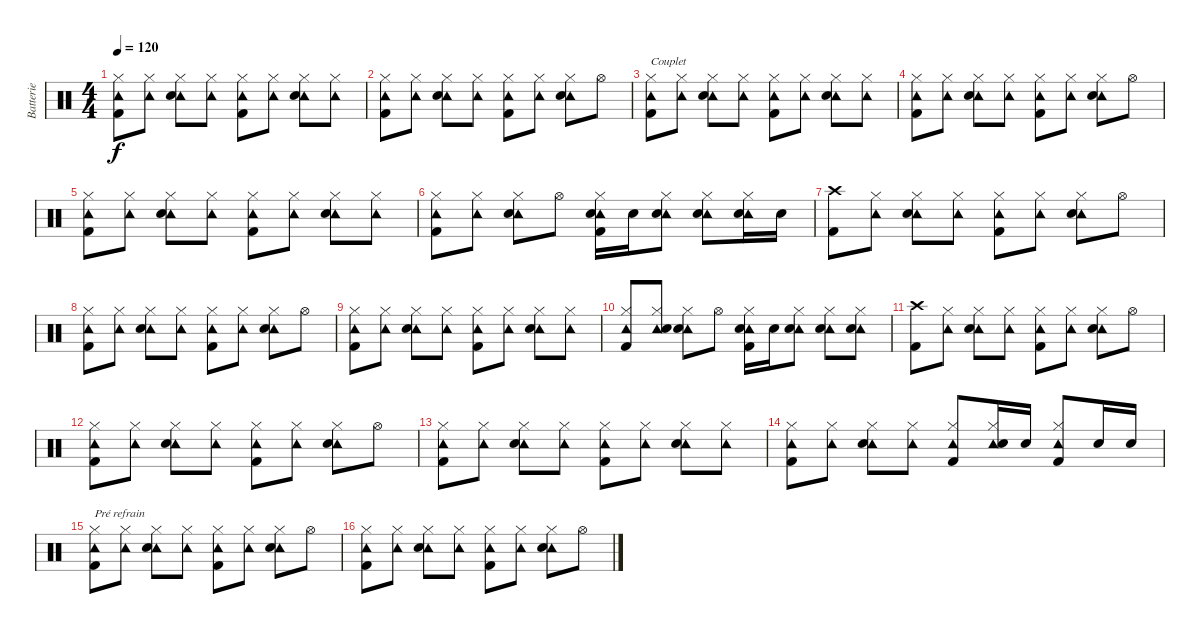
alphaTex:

\track ("Batterie" "Batterie") {instrument percussion}
\staff {score}
\articulation defaults
\ts (4 4)
\tempo 120
\clef neutral
\ks c
("Tambourine (hit)" "Hi-Hat (closed)" "Kick (hit) 2").8{dy f} ("Tambourine (hit)" "Hi-Hat (closed)").8 ("Tambourine (hit)" "Hi-Hat (closed)" "Electric Snare (hit)").8 ("Tambourine (hit)" "Hi-Hat (closed)").8 ("Tambourine (hit)" "Hi-Hat (closed)" "Kick (hit) 2").8 ("Tambourine (hit)" "Hi-Hat (closed)").8 ("Tambourine (hit)" "Hi-Hat (closed)" "Electric Snare (hit)").8 ("Tambourine (hit)" "Hi-Hat (closed)").8 |
("Tambourine (hit)" "Hi-Hat (closed)" "Kick (hit) 2").8 ("Tambourine (hit)" "Hi-Hat (closed)").8 ("Tambourine (hit)" "Hi-Hat (closed)" "Electric Snare (hit)").8 ("Tambourine (hit)" "Hi-Hat (closed)").8 ("Tambourine (hit)" "Hi-Hat (closed)" "Kick (hit) 2").8 ("Tambourine (hit)" "Hi-Hat (closed)").8 ("Tambourine (hit)" "Hi-Hat (closed)" "Electric Snare (hit)").8 "Hi-Hat (open)".8 |
("Tambourine (hit)" "Hi-Hat (closed)" "Kick (hit) 2").8{txt "Couplet"} ("Tambourine (hit)" "Hi-Hat (closed)").8 ("Tambourine (hit)" "Hi-Hat (closed)" "Electric Snare (hit)").8 ("Tambourine (hit)" "Hi-Hat (closed)").8 ("Tambourine (hit)" "Hi-Hat (closed)" "Kick (hit) 2").8 ("Tambourine (hit)" "Hi-Hat (closed)").8 ("Tambourine (hit)" "Hi-Hat (closed)" "Electric Snare (hit)").8 ("Tambourine (hit)" "Hi-Hat (closed)").8 |
("Tambourine (hit)" "Hi-Hat (closed)" "Kick (hit) 2").8 ("Tambourine (hit)" "Hi-Hat (closed)").8 ("Tambourine (hit)" "Hi-Hat (closed)" "Electric Snare (hit)").8 ("Tambourine (hit)" "Hi-Hat (closed)").8 ("Tambourine (hit)" "Hi-Hat (closed)" "Kick (hit) 2").8 ("Tambourine (hit)" "Hi-Hat (closed)").8 ("Tambourine (hit)" "Hi-Hat (closed)" "Electric Snare (hit)").8 "Hi-Hat (open)".8 |
("Tambourine (hit)" "Hi-Hat (closed)" "Kick (hit) 2").8 ("Tambourine (hit)" "Hi-Hat (closed)").8 ("Tambourine (hit)" "Hi-Hat (closed)" "Electric Snare (hit)").8 ("Tambourine (hit)" "Hi-Hat (closed)").8 ("Tambourine (hit)" "Hi-Hat (closed)" "Kick (hit) 2").8 ("Tambourine (hit)" "Hi-Hat (closed)").8 ("Tambourine (hit)" "Hi-Hat (closed)" "Electric Snare (hit)").8 ("Tambourine (hit)" "Hi-Hat (closed)").8 |
("Tambourine (hit)" "Hi-Hat (closed)" "Kick (hit) 2").8 ("Tambourine (hit)" "Hi-Hat (closed)").8 ("Tambourine (hit)" "Hi-Hat (closed)" "Electric Snare (hit)").8 "Hi-Hat (open)".8 ("Tambourine (hit)" "Hi-Hat (closed)" "Kick (hit) 2" "Electric Snare (hit)").16 "Electric Snare (hit)".16 ("Tambourine (hit)" "Hi-Hat (closed)" "Electric Snare (hit)").8 ("Tambourine (hit)" "Hi-Hat (closed)" "Electric Snare (hit)").8 ("Tambourine (hit)" "Hi-Hat (closed)" "Electric Snare (hit)").16 "Electric Snare (hit)".16 |
("Crash high (hit)" "Kick (hit) 2").8 ("Tambourine (hit)" "Hi-Hat (closed)").8 ("Tambourine (hit)" "Hi-Hat (closed)" "Electric Snare (hit)").8 ("Tambourine (hit)" "Hi-Hat (closed)").8 ("Tambourine (hit)" "Hi-Hat (closed)" "Kick (hit) 2").8 ("Tambourine (hit)" "Hi-Hat (closed)").8 ("Tambourine (hit)" "Hi-Hat (closed)" "Electric Snare (hit)").8 "Hi-Hat (open)".8 |
("Tambourine (hit)" "Hi-Hat (closed)" "Kick (hit) 2").8 ("Tambourine (hit)" "Hi-Hat (closed)").8 ("Tambourine (hit)" "Hi-Hat (closed)" "Electric Snare (hit)").8 ("Tambourine (hit)" "Hi-Hat (closed)").8 ("Tambourine (hit)" "Hi-Hat (closed)" "Kick (hit) 2").8 ("Tambourine (hit)" "Hi-Hat (closed)").8 ("Tambourine (hit)" "Hi-Hat (closed)" "Electric Snare (hit)").8 "Hi-Hat (open)".8 |
("Tambourine (hit)" "Hi-Hat (closed)" "Kick (hit) 2").8 ("Tambourine (hit)" "Hi-Hat (closed)").8 ("Tambourine (hit)" "Hi-Hat (closed)" "Electric Snare (hit)").8 ("Tambourine (hit)" "Hi-Hat (closed)").8 ("Tambourine (hit)" "Hi-Hat (closed)" "Kick (hit) 2").8 ("Tambourine (hit)" "Hi-Hat (closed)").8 ("Tambourine (hit)" "Hi-Hat (closed)" "Electric Snare (hit)").8 ("Tambourine (hit)" "Hi-Hat (closed)").8 |
("Tambourine (hit)" "Hi-Hat (closed)" "Kick (hit) 2").8 ("Tambourine (hit)" "Hi-Hat (closed)" "Electric Snare (hit)").8 ("Tambourine (hit)" "Hi-Hat (closed)" "Electric Snare (hit)").8 "Hi-Hat (open)".8 ("Tambourine (hit)" "Hi-Hat (closed)" "Kick (hit) 2" "Electric Snare (hit)").16 "Electric Snare (hit)".16 ("Tambourine (hit)" "Hi-Hat (closed)" "Electric Snare (hit)").8 ("Tambourine (hit)" "Hi-Hat (closed)" "Electric Snare (hit)").8 ("Tambourine (hit)" "Hi-Hat (closed)" "Electric Snare (hit)").8 |
("Crash high (hit)" "Kick (hit) 2").8 ("Tambourine (hit)" "Hi-Hat (closed)").8 ("Tambourine (hit)" "Hi-Hat (closed)" "Electric Snare (hit)").8 ("Tambourine (hit)" "Hi-Hat (closed)").8 ("Tambourine (hit)" "Hi-Hat (closed)" "Kick (hit) 2").8 ("Tambourine (hit)" "Hi-Hat (closed)").8 ("Tambourine (hit)" "Hi-Hat (closed)" "Electric Snare (hit)").8 "Hi-Hat (open)".8 |
("Tambourine (hit)" "Hi-Hat (closed)" "Kick (hit) 2").8 ("Tambourine (hit)" "Hi-Hat (closed)").8 ("Tambourine (hit)" "Hi-Hat (closed)" "Electric Snare (hit)").8 ("Tambourine (hit)" "Hi-Hat (closed)").8 ("Tambourine (hit)" "Hi-Hat (closed)" "Kick (hit) 2").8 ("Tambourine (hit)" "Hi-Hat (closed)").8 ("Tambourine (hit)" "Hi-Hat (closed)" "Electric Snare (hit)").8 "Hi-Hat (open)".8 |
("Tambourine (hit)" "Hi-Hat (closed)" "Kick (hit) 2").8 ("Tambourine (hit)" "Hi-Hat (closed)").8 ("Tambourine (hit)" "Hi-Hat (closed)" "Electric Snare (hit)").8 ("Tambourine (hit)" "Hi-Hat (closed)").8 ("Tambourine (hit)" "Hi-Hat (closed)" "Kick (hit) 2").8 ("Tambourine (hit)" "Hi-Hat (closed)").8 ("Tambourine (hit)" "Hi-Hat (closed)" "Electric Snare (hit)").8 ("Tambourine (hit)" "Hi-Hat (closed)").8 |
("Tambourine (hit)" "Hi-Hat (closed)" "Kick (hit) 2").8 ("Tambourine (hit)" "Hi-Hat (closed)").8 ("Tambourine (hit)" "Hi-Hat (closed)" "Electric Snare (hit)").8 ("Tambourine (hit)" "Hi-Hat (closed)").8 ("Tambourine (hit)" "Hi-Hat (closed)" "Kick (hit) 2").8 ("Tambourine (hit)" "Hi-Hat (closed)" "Electric Snare (hit)").16 "Electric Snare (hit)".16 ("Tambourine (hit)" "Hi-Hat (closed)" "Kick (hit) 2").8 "Electric Snare (hit)".16 "Electric Snare (hit)".16 |
("Tambourine (hit)" "Hi-Hat (closed)" "Kick (hit) 2").8{txt "Pré refrain"} ("Tambourine (hit)" "Hi-Hat (closed)").8 ("Tambourine (hit)" "Hi-Hat (closed)" "Electric Snare (hit)").8 ("Tambourine (hit)" "Hi-Hat (closed)").8 ("Tambourine (hit)" "Hi-Hat (closed)" "Kick (hit) 2").8 ("Tambourine (hit)" "Hi-Hat (closed)").8 ("Tambourine (hit)" "Hi-Hat (closed)" "Electric Snare (hit)").8 "Hi-Hat (open)".8 |
("Tambourine (hit)" "Hi-Hat (closed)" "Kick (hit) 2").8 ("Tambourine (hit)" "Hi-Hat (closed)").8 ("Tambourine (hit)" "Hi-Hat (closed)" "Electric Snare (hit)").8 ("Tambourine (hit)" "Hi-Hat (closed)").8 ("Tambourine (hit)" "Hi-Hat (closed)" "Kick (hit) 2").8 ("Tambourine (hit)" "Hi-Hat (closed)").8 ("Tambourine (hit)" "Hi-Hat (closed)" "Electric Snare (hit)").8 "Hi-Hat (open)".8
